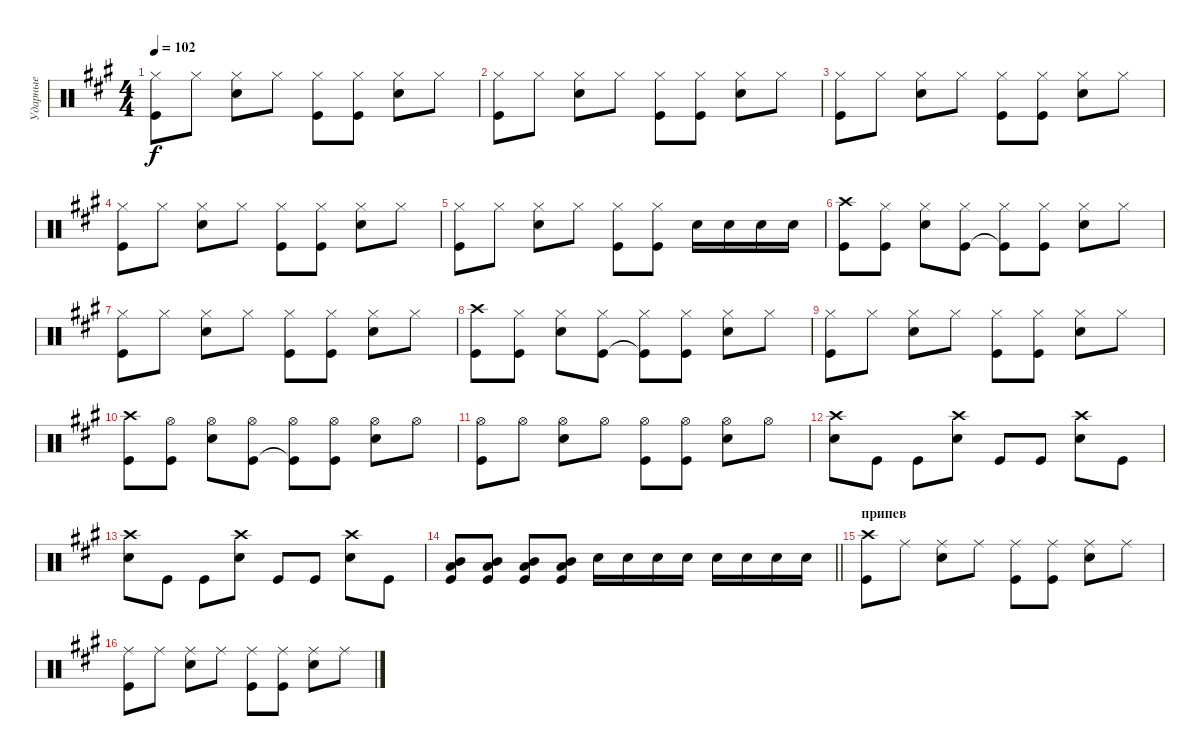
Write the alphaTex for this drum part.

\track ("Ударные" "Ударные") {instrument percussion}
\staff {score}
\articulation defaults
\ts (4 4)
\tempo 102
\clef neutral
\ks f#minor
("Hi-Hat (closed)" "Kick (hit)").8{dy f} "Hi-Hat (closed)".8 ("Hi-Hat (closed)" "Snare (hit) 2").8 "Hi-Hat (closed)".8 ("Hi-Hat (closed)" "Kick (hit)").8 ("Hi-Hat (closed)" "Kick (hit)").8 ("Hi-Hat (closed)" "Snare (hit) 2").8 "Hi-Hat (closed)".8 |
("Hi-Hat (closed)" "Kick (hit)").8 "Hi-Hat (closed)".8 ("Hi-Hat (closed)" "Snare (hit) 2").8 "Hi-Hat (closed)".8 ("Hi-Hat (closed)" "Kick (hit)").8 ("Hi-Hat (closed)" "Kick (hit)").8 ("Hi-Hat (closed)" "Snare (hit) 2").8 "Hi-Hat (closed)".8 |
("Hi-Hat (closed)" "Kick (hit)").8 "Hi-Hat (closed)".8 ("Hi-Hat (closed)" "Snare (hit) 2").8 "Hi-Hat (closed)".8 ("Hi-Hat (closed)" "Kick (hit)").8 ("Hi-Hat (closed)" "Kick (hit)").8 ("Hi-Hat (closed)" "Snare (hit) 2").8 "Hi-Hat (closed)".8 |
("Hi-Hat (closed)" "Kick (hit)").8 "Hi-Hat (closed)".8 ("Hi-Hat (closed)" "Snare (hit) 2").8 "Hi-Hat (closed)".8 ("Hi-Hat (closed)" "Kick (hit)").8 ("Hi-Hat (closed)" "Kick (hit)").8 ("Hi-Hat (closed)" "Snare (hit) 2").8 "Hi-Hat (closed)".8 |
("Hi-Hat (closed)" "Kick (hit)").8 "Hi-Hat (closed)".8 ("Hi-Hat (closed)" "Snare (hit) 2").8 "Hi-Hat (closed)".8 ("Hi-Hat (closed)" "Kick (hit)").8 ("Hi-Hat (closed)" "Kick (hit)").8 "Snare (hit) 2".16 "Snare (hit) 2".16 "Snare (hit) 2".16 "Snare (hit) 2".16 |
("Crash high (hit)" "Kick (hit)").8 ("Hi-Hat (closed)" "Kick (hit)").8 ("Hi-Hat (closed)" "Snare (hit) 2").8 ("Hi-Hat (closed)" "Kick (hit)").8 ("Hi-Hat (closed)" "Kick (hit)"{t}).8 ("Hi-Hat (closed)" "Kick (hit)").8 ("Hi-Hat (closed)" "Snare (hit) 2").8 "Hi-Hat (closed)".8 |
("Hi-Hat (closed)" "Kick (hit)").8 "Hi-Hat (closed)".8 ("Hi-Hat (closed)" "Snare (hit) 2").8 "Hi-Hat (closed)".8 ("Hi-Hat (closed)" "Kick (hit)").8 ("Hi-Hat (closed)" "Kick (hit)").8 ("Hi-Hat (closed)" "Snare (hit) 2").8 "Hi-Hat (closed)".8 |
("Crash high (hit)" "Kick (hit)").8 ("Hi-Hat (closed)" "Kick (hit)").8 ("Hi-Hat (closed)" "Snare (hit) 2").8 ("Hi-Hat (closed)" "Kick (hit)").8 ("Hi-Hat (closed)" "Kick (hit)"{t}).8 ("Hi-Hat (closed)" "Kick (hit)").8 ("Hi-Hat (closed)" "Snare (hit) 2").8 "Hi-Hat (closed)".8 |
("Hi-Hat (closed)" "Kick (hit)").8 "Hi-Hat (closed)".8 ("Hi-Hat (closed)" "Snare (hit) 2").8 "Hi-Hat (closed)".8 ("Hi-Hat (closed)" "Kick (hit)").8 ("Hi-Hat (closed)" "Kick (hit)").8 ("Hi-Hat (closed)" "Snare (hit) 2").8 "Hi-Hat (closed)".8 |
("Crash high (hit)" "Kick (hit)").8 ("Hi-Hat (open)" "Kick (hit)").8 ("Hi-Hat (open)" "Snare (hit) 2").8 ("Hi-Hat (open)" "Kick (hit)").8 ("Hi-Hat (open)" "Kick (hit)"{t}).8 ("Hi-Hat (open)" "Kick (hit)").8 ("Hi-Hat (open)" "Snare (hit) 2").8 "Hi-Hat (open)".8 |
("Hi-Hat (open)" "Kick (hit)").8 "Hi-Hat (open)".8 ("Hi-Hat (open)" "Snare (hit) 2").8 "Hi-Hat (open)".8 ("Hi-Hat (open)" "Kick (hit)").8 ("Hi-Hat (open)" "Kick (hit)").8 ("Hi-Hat (open)" "Snare (hit) 2").8 "Hi-Hat (open)".8 |
("Crash high (hit)" "Snare (hit) 2").8 "Kick (hit)".8 "Kick (hit)".8 ("Crash high (hit)" "Snare (hit) 2").8 "Kick (hit)".8 "Kick (hit)".8 ("Crash high (hit)" "Snare (hit) 2").8 "Kick (hit)".8 |
("Crash high (hit)" "Snare (hit) 2").8 "Kick (hit)".8 "Kick (hit)".8 ("Crash high (hit)" "Snare (hit) 2").8 "Kick (hit)".8 "Kick (hit)".8 ("Crash high (hit)" "Snare (hit) 2").8 "Kick (hit)".8 |
\barLineRight lightlight
("Kick (hit)" "Low Tom (hit)" "Mid Tom (hit)").8 ("Kick (hit)" "Low Tom (hit)" "Mid Tom (hit)").8 ("Kick (hit)" "Low Tom (hit)" "Mid Tom (hit)").8 ("Kick (hit)" "Low Tom (hit)" "Mid Tom (hit)").8 "Snare (hit) 2".16 "Snare (hit) 2".16 "Snare (hit) 2".16 "Snare (hit) 2".16 "Snare (hit) 2".16 "Snare (hit) 2".16 "Snare (hit) 2".16 "Snare (hit) 2".16 |
\section ("" "припев")
("Crash high (hit)" "Kick (hit)").8 "Ride (middle)".8 ("Ride (middle)" "Snare (hit) 2").8 "Ride (middle)".8 ("Ride (middle)" "Kick (hit)").8 ("Ride (middle)" "Kick (hit)").8 ("Ride (middle)" "Snare (hit) 2").8 "Ride (middle)".8 |
("Ride (middle)" "Kick (hit)").8 "Ride (middle)".8 ("Ride (middle)" "Snare (hit) 2").8 "Ride (middle)".8 ("Ride (middle)" "Kick (hit)").8 ("Ride (middle)" "Kick (hit)").8 ("Snare (hit) 2" "Ride (middle)").8 "Ride (middle)".8
